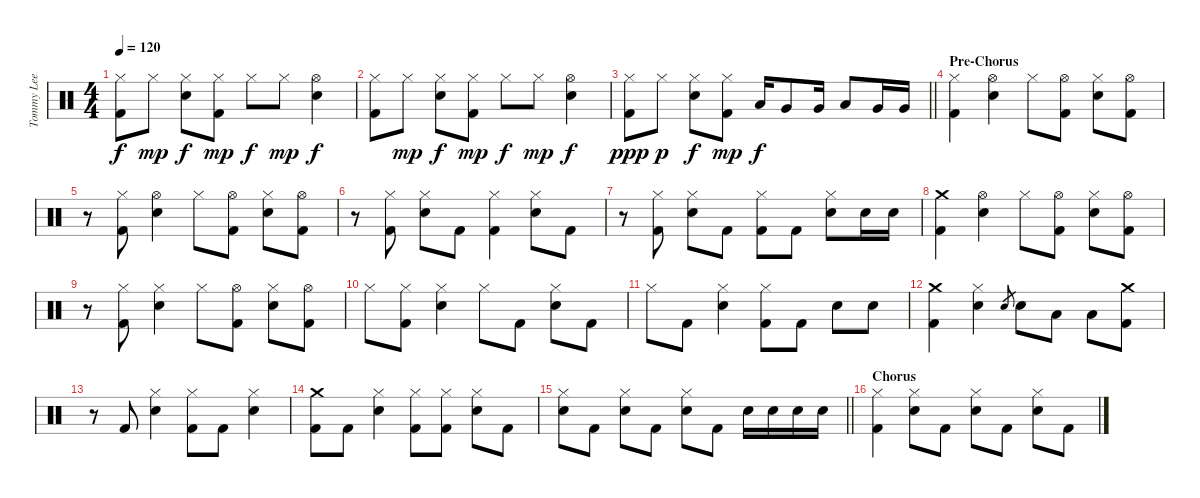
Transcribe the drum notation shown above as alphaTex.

\track ("Tommy Lee - Drums" "Tommy Lee ") {instrument percussion}
\staff {score}
\articulation defaults
\ts (4 4)
\tempo 120
\clef neutral
\ks c
("Hi-Hat (closed)" "Kick (hit) 2").8{dy f} "Hi-Hat (closed)".8{dy mp} ("Hi-Hat (closed)" "Snare (hit) 2").8{dy f} ("Hi-Hat (closed)" "Kick (hit) 2").8{dy mp} "Hi-Hat (closed)".8{dy f} "Hi-Hat (closed)".8{dy mp} ("Hi-Hat (open)" "Snare (hit) 2").4{dy f} |
("Hi-Hat (closed)" "Kick (hit) 2").8 "Hi-Hat (closed)".8{dy mp} ("Hi-Hat (closed)" "Snare (hit) 2").8{dy f} ("Hi-Hat (closed)" "Kick (hit) 2").8{dy mp} "Hi-Hat (closed)".8{dy f} "Hi-Hat (closed)".8{dy mp} ("Hi-Hat (open)" "Snare (hit) 2").4{dy f} |
\barLineRight lightlight
("Hi-Hat (closed)" "Kick (hit) 2").8{dy ppp} "Hi-Hat (closed)".8{dy p} ("Hi-Hat (closed)" "Snare (hit) 2").8{dy f} ("Hi-Hat (closed)" "Kick (hit) 2").8{dy mp} "Low Tom (hit)".16{dy f} "Very Low Tom (hit)".8 "Very Low Tom (hit)".16 "Low Tom (hit)".8 "Very Low Tom (hit)".16 "Very Low Tom (hit)".16 |
\section ("" "Pre-Chorus")
("Hi-Hat (closed)" "Kick (hit) 2").4 ("Hi-Hat (open)" "Snare (hit) 2").4 "Hi-Hat (closed)".8 ("Hi-Hat (open)" "Kick (hit) 2").8 ("Hi-Hat (closed)" "Snare (hit) 2").8 ("Hi-Hat (open)" "Kick (hit) 2").8 |
r.8 ("Hi-Hat (closed)" "Kick (hit) 2").8 ("Hi-Hat (open)" "Snare (hit) 2").4 "Hi-Hat (closed)".8 ("Hi-Hat (open)" "Kick (hit) 2").8 ("Hi-Hat (closed)" "Snare (hit) 2").8 ("Hi-Hat (open)" "Kick (hit) 2").8 |
r.8 ("Hi-Hat (closed)" "Kick (hit) 2").8 ("Hi-Hat (closed)" "Snare (hit) 2").8 "Kick (hit) 2".8 ("Hi-Hat (closed)" "Kick (hit) 2").4 ("Hi-Hat (closed)" "Snare (hit) 2").8 "Kick (hit) 2".8 |
r.8 ("Hi-Hat (closed)" "Kick (hit) 2").8 ("Hi-Hat (closed)" "Snare (hit) 2").8 "Kick (hit) 2".8 ("Hi-Hat (closed)" "Kick (hit) 2").8 "Kick (hit) 2".8 ("Hi-Hat (closed)" "Snare (hit) 2").8 "Snare (hit) 2".16 "Snare (hit) 2".16 |
("Crash medium (hit)" "Kick (hit) 2").4 ("Hi-Hat (open)" "Snare (hit) 2").4 "Hi-Hat (closed)".8 ("Hi-Hat (open)" "Kick (hit) 2").8 ("Hi-Hat (closed)" "Snare (hit) 2").8 ("Hi-Hat (open)" "Kick (hit) 2").8 |
r.8 ("Hi-Hat (closed)" "Kick (hit) 2").8 ("Hi-Hat (closed)" "Snare (hit) 2").4 "Hi-Hat (closed)".8 ("Hi-Hat (open)" "Kick (hit) 2").8 ("Hi-Hat (closed)" "Snare (hit) 2").8 ("Hi-Hat (open)" "Kick (hit) 2").8 |
"Hi-Hat (closed)".8 ("Hi-Hat (closed)" "Kick (hit) 2").8 ("Hi-Hat (closed)" "Snare (hit) 2").4 "Hi-Hat (closed)".8 "Kick (hit) 2".8 ("Hi-Hat (closed)" "Snare (hit) 2").8 "Kick (hit) 2".8 |
"Hi-Hat (closed)".8 "Kick (hit) 2".8 ("Hi-Hat (closed)" "Snare (hit) 2").4 ("Hi-Hat (closed)" "Kick (hit) 2").8 "Kick (hit) 2".8 "Snare (hit) 2".8 "Snare (hit) 2".8 |
("Crash medium (hit)" "Kick (hit) 2").4 ("Hi-Hat (closed)" "Snare (hit) 2").4 "Snare (hit) 2".8{gr} "Snare (hit) 2".8 "Low Tom (hit)".8 "Low Tom (hit)".8 ("Crash medium (hit)" "Kick (hit) 2").8 |
r.8 "Kick (hit) 2".8 ("Hi-Hat (closed)" "Snare (hit) 2").4 ("Hi-Hat (closed)" "Kick (hit) 2").8 "Kick (hit) 2".8 ("Hi-Hat (closed)" "Snare (hit) 2").4 |
("Crash medium (hit)" "Kick (hit) 2").8 "Kick (hit) 2".8 ("Hi-Hat (closed)" "Snare (hit) 2").4 ("Hi-Hat (closed)" "Kick (hit) 2").8 ("Hi-Hat (closed)" "Kick (hit) 2").8 ("Hi-Hat (closed)" "Snare (hit) 2").8 "Kick (hit) 2".8 |
\barLineRight lightlight
("Hi-Hat (closed)" "Snare (hit) 2").8 "Kick (hit) 2".8 ("Hi-Hat (closed)" "Snare (hit) 2").8 "Kick (hit) 2".8 ("Hi-Hat (closed)" "Snare (hit) 2").8 "Kick (hit) 2".8 "Snare (hit) 2".16 "Snare (hit) 2".16 "Snare (hit) 2".16 "Snare (hit) 2".16 |
\section ("" "Chorus")
("Hi-Hat (closed)" "Kick (hit) 2").4 ("Hi-Hat (closed)" "Snare (hit) 2").8 "Kick (hit) 2".8 ("Hi-Hat (closed)" "Snare (hit) 2").8 "Kick (hit) 2".8 ("Hi-Hat (closed)" "Snare (hit) 2").8 "Kick (hit) 2".8
